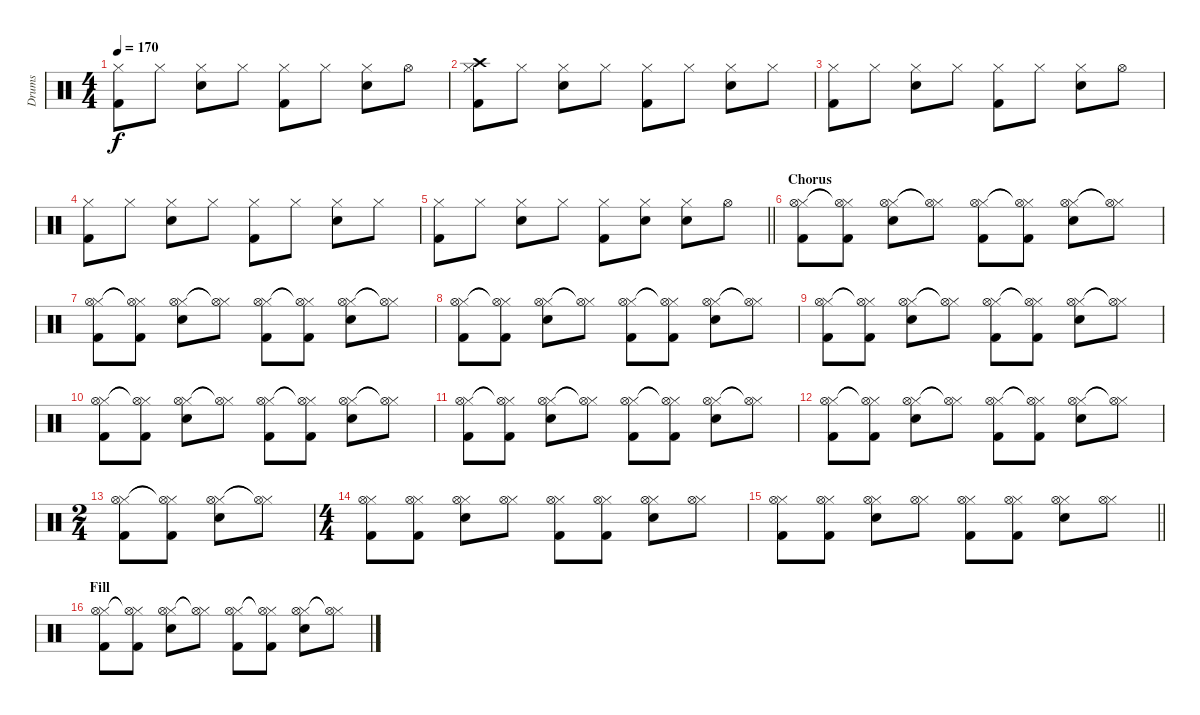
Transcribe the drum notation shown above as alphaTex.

\track ("Drums" "Drums") {instrument percussion}
\staff {score}
\articulation defaults
\ts (4 4)
\tempo 170
\clef neutral
\ks c
("Hi-Hat (closed)" "Kick (hit) 2").8{dy f} "Hi-Hat (closed)".8 ("Hi-Hat (closed)" "Snare (hit) 2").8 "Hi-Hat (closed)".8 ("Hi-Hat (closed)" "Kick (hit) 2").8 "Hi-Hat (closed)".8 ("Hi-Hat (closed)" "Snare (hit) 2").8 "Hi-Hat (open)".8 |
("Hi-Hat (closed)" "Crash high (hit)" "Kick (hit) 2").8 "Hi-Hat (closed)".8 ("Hi-Hat (closed)" "Snare (hit) 2").8 "Hi-Hat (closed)".8 ("Hi-Hat (closed)" "Kick (hit) 2").8 "Hi-Hat (closed)".8 ("Hi-Hat (closed)" "Snare (hit) 2").8 "Hi-Hat (closed)".8 |
("Hi-Hat (closed)" "Kick (hit) 2").8 "Hi-Hat (closed)".8 ("Hi-Hat (closed)" "Snare (hit) 2").8 "Hi-Hat (closed)".8 ("Hi-Hat (closed)" "Kick (hit) 2").8 "Hi-Hat (closed)".8 ("Hi-Hat (closed)" "Snare (hit) 2").8 "Hi-Hat (open)".8 |
("Hi-Hat (closed)" "Kick (hit) 2").8 "Hi-Hat (closed)".8 ("Hi-Hat (closed)" "Snare (hit) 2").8 "Hi-Hat (closed)".8 ("Hi-Hat (closed)" "Kick (hit) 2").8 "Hi-Hat (closed)".8 ("Hi-Hat (closed)" "Snare (hit) 2").8 "Hi-Hat (closed)".8 |
\barLineRight lightlight
("Hi-Hat (closed)" "Kick (hit) 2").8 "Hi-Hat (closed)".8 ("Hi-Hat (closed)" "Snare (hit) 2").8 "Hi-Hat (closed)".8 ("Hi-Hat (closed)" "Kick (hit) 2").8 ("Hi-Hat (closed)" "Snare (hit) 2").8 ("Hi-Hat (closed)" "Snare (hit) 2").8 "Hi-Hat (open)".8 |
\section ("" "Chorus")
("Hi-Hat (closed)" "Hi-Hat (open)" "Kick (hit) 2").8 ("Hi-Hat (closed)"{t} "Hi-Hat (open)"{t} "Kick (hit) 2").8 ("Hi-Hat (closed)" "Hi-Hat (open)" "Snare (hit) 2").8 ("Hi-Hat (closed)"{t} "Hi-Hat (open)"{t}).8 ("Hi-Hat (closed)" "Hi-Hat (open)" "Kick (hit) 2").8 ("Hi-Hat (closed)"{t} "Hi-Hat (open)"{t} "Kick (hit) 2").8 ("Hi-Hat (closed)" "Hi-Hat (open)" "Snare (hit) 2").8 ("Hi-Hat (closed)"{t} "Hi-Hat (open)"{t}).8 |
("Hi-Hat (closed)" "Hi-Hat (open)" "Kick (hit) 2").8 ("Hi-Hat (closed)"{t} "Hi-Hat (open)"{t} "Kick (hit) 2").8 ("Hi-Hat (closed)" "Hi-Hat (open)" "Snare (hit) 2").8 ("Hi-Hat (closed)"{t} "Hi-Hat (open)"{t}).8 ("Hi-Hat (closed)" "Hi-Hat (open)" "Kick (hit) 2").8 ("Hi-Hat (closed)"{t} "Hi-Hat (open)"{t} "Kick (hit) 2").8 ("Hi-Hat (closed)" "Hi-Hat (open)" "Snare (hit) 2").8 ("Hi-Hat (closed)"{t} "Hi-Hat (open)"{t}).8 |
("Hi-Hat (closed)" "Hi-Hat (open)" "Kick (hit) 2").8 ("Hi-Hat (closed)"{t} "Hi-Hat (open)"{t} "Kick (hit) 2").8 ("Hi-Hat (closed)" "Hi-Hat (open)" "Snare (hit) 2").8 ("Hi-Hat (closed)"{t} "Hi-Hat (open)"{t}).8 ("Hi-Hat (closed)" "Hi-Hat (open)" "Kick (hit) 2").8 ("Hi-Hat (closed)"{t} "Hi-Hat (open)"{t} "Kick (hit) 2").8 ("Hi-Hat (closed)" "Hi-Hat (open)" "Snare (hit) 2").8 ("Hi-Hat (closed)"{t} "Hi-Hat (open)"{t}).8 |
("Hi-Hat (closed)" "Hi-Hat (open)" "Kick (hit) 2").8 ("Hi-Hat (closed)"{t} "Hi-Hat (open)"{t} "Kick (hit) 2").8 ("Hi-Hat (closed)" "Hi-Hat (open)" "Snare (hit) 2").8 ("Hi-Hat (closed)"{t} "Hi-Hat (open)"{t}).8 ("Hi-Hat (closed)" "Hi-Hat (open)" "Kick (hit) 2").8 ("Hi-Hat (closed)"{t} "Hi-Hat (open)"{t} "Kick (hit) 2").8 ("Hi-Hat (closed)" "Hi-Hat (open)" "Snare (hit) 2").8 ("Hi-Hat (closed)"{t} "Hi-Hat (open)"{t}).8 |
("Hi-Hat (closed)" "Hi-Hat (open)" "Kick (hit) 2").8 ("Hi-Hat (closed)"{t} "Hi-Hat (open)"{t} "Kick (hit) 2").8 ("Hi-Hat (closed)" "Hi-Hat (open)" "Snare (hit) 2").8 ("Hi-Hat (closed)"{t} "Hi-Hat (open)"{t}).8 ("Hi-Hat (closed)" "Hi-Hat (open)" "Kick (hit) 2").8 ("Hi-Hat (closed)"{t} "Hi-Hat (open)"{t} "Kick (hit) 2").8 ("Hi-Hat (closed)" "Hi-Hat (open)" "Snare (hit) 2").8 ("Hi-Hat (closed)"{t} "Hi-Hat (open)"{t}).8 |
("Hi-Hat (closed)" "Hi-Hat (open)" "Kick (hit) 2").8 ("Hi-Hat (closed)"{t} "Hi-Hat (open)"{t} "Kick (hit) 2").8 ("Hi-Hat (closed)" "Hi-Hat (open)" "Snare (hit) 2").8 ("Hi-Hat (closed)"{t} "Hi-Hat (open)"{t}).8 ("Hi-Hat (closed)" "Hi-Hat (open)" "Kick (hit) 2").8 ("Hi-Hat (closed)"{t} "Hi-Hat (open)"{t} "Kick (hit) 2").8 ("Hi-Hat (closed)" "Hi-Hat (open)" "Snare (hit) 2").8 ("Hi-Hat (closed)"{t} "Hi-Hat (open)"{t}).8 |
("Hi-Hat (closed)" "Hi-Hat (open)" "Kick (hit) 2").8 ("Hi-Hat (closed)"{t} "Hi-Hat (open)"{t} "Kick (hit) 2").8 ("Hi-Hat (closed)" "Hi-Hat (open)" "Snare (hit) 2").8 ("Hi-Hat (closed)"{t} "Hi-Hat (open)"{t}).8 ("Hi-Hat (closed)" "Hi-Hat (open)" "Kick (hit) 2").8 ("Hi-Hat (closed)"{t} "Hi-Hat (open)"{t} "Kick (hit) 2").8 ("Hi-Hat (closed)" "Hi-Hat (open)" "Snare (hit) 2").8 ("Hi-Hat (closed)"{t} "Hi-Hat (open)"{t}).8 |
\ts (2 4)
("Hi-Hat (closed)" "Hi-Hat (open)" "Kick (hit) 2").8 ("Hi-Hat (closed)"{t} "Hi-Hat (open)"{t} "Kick (hit) 2").8 ("Hi-Hat (closed)" "Hi-Hat (open)" "Snare (hit) 2").8 ("Hi-Hat (closed)"{t} "Hi-Hat (open)"{t}).8 |
\ts (4 4)
("Hi-Hat (closed)" "Hi-Hat (open)" "Kick (hit) 2").8 ("Hi-Hat (closed)" "Hi-Hat (open)" "Kick (hit) 2").8 ("Hi-Hat (closed)" "Hi-Hat (open)" "Snare (hit) 2").8 ("Hi-Hat (closed)" "Hi-Hat (open)").8 ("Hi-Hat (closed)" "Hi-Hat (open)" "Kick (hit) 2").8 ("Hi-Hat (closed)" "Hi-Hat (open)" "Kick (hit) 2").8 ("Hi-Hat (closed)" "Hi-Hat (open)" "Snare (hit) 2").8 ("Hi-Hat (closed)" "Hi-Hat (open)").8 |
\barLineRight lightlight
("Hi-Hat (closed)" "Hi-Hat (open)" "Kick (hit) 2").8 ("Hi-Hat (closed)" "Hi-Hat (open)" "Kick (hit) 2").8 ("Hi-Hat (closed)" "Hi-Hat (open)" "Snare (hit) 2").8 ("Hi-Hat (closed)" "Hi-Hat (open)").8 ("Hi-Hat (closed)" "Hi-Hat (open)" "Kick (hit) 2").8 ("Hi-Hat (closed)" "Hi-Hat (open)" "Kick (hit) 2").8 ("Hi-Hat (closed)" "Hi-Hat (open)" "Snare (hit) 2").8 ("Hi-Hat (closed)" "Hi-Hat (open)").8 |
\section ("" "Fill")
("Hi-Hat (closed)" "Hi-Hat (open)" "Kick (hit) 2").8 ("Hi-Hat (closed)"{t} "Hi-Hat (open)"{t} "Kick (hit) 2").8 ("Hi-Hat (closed)" "Hi-Hat (open)" "Snare (hit) 2").8 ("Hi-Hat (closed)"{t} "Hi-Hat (open)"{t}).8 ("Hi-Hat (closed)" "Hi-Hat (open)" "Kick (hit) 2").8 ("Hi-Hat (closed)"{t} "Hi-Hat (open)"{t} "Kick (hit) 2").8 ("Hi-Hat (closed)" "Hi-Hat (open)" "Snare (hit) 2").8 ("Hi-Hat (closed)"{t} "Hi-Hat (open)"{t}).8
